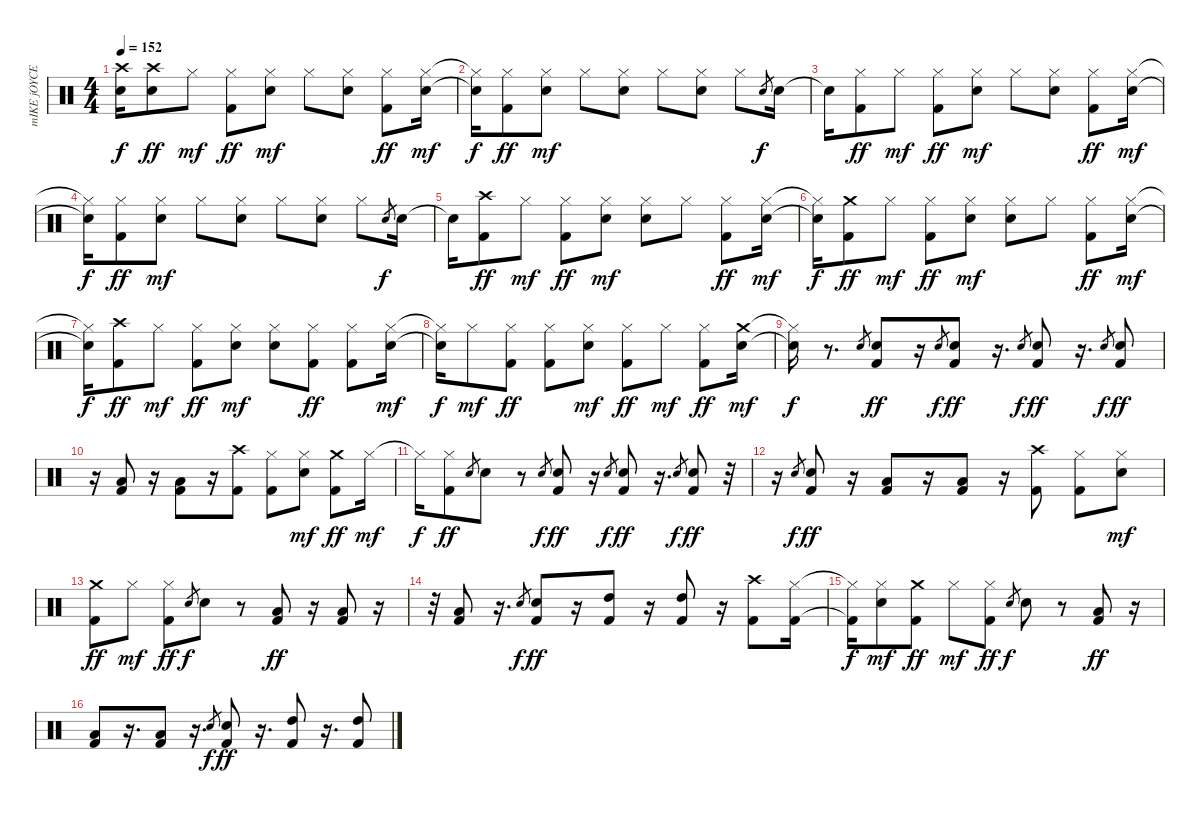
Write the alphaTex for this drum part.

\track ("mIKE jOYCE" "mIKE jOYCE") {instrument percussion}
\staff {score}
\articulation defaults
\ts (4 4)
\tempo 152
\clef neutral
\ks c
("Crash high (hit)"{t} "Electric Snare (hit)"{t}).16{dy f} ("Crash high (hit)" "Electric Snare (hit)").8{dy ff} "Hi-Hat (closed)".8{dy mf} ("Hi-Hat (closed)" "Kick (hit) 2").8{dy ff} ("Hi-Hat (closed)" "Electric Snare (hit)").8{dy mf} "Hi-Hat (closed)".8 ("Hi-Hat (closed)" "Electric Snare (hit)").8 ("Hi-Hat (closed)" "Kick (hit) 2").8{dy ff} ("Hi-Hat (closed)" "Electric Snare (hit)").16{dy mf} |
("Hi-Hat (closed)"{t} "Electric Snare (hit)"{t}).16{dy f} ("Hi-Hat (closed)" "Kick (hit) 2").8{dy ff} ("Hi-Hat (closed)" "Electric Snare (hit)").8{dy mf} "Hi-Hat (closed)".8 ("Hi-Hat (closed)" "Electric Snare (hit)").8 "Hi-Hat (closed)".8 ("Hi-Hat (closed)" "Electric Snare (hit)").8 "Hi-Hat (closed)".8 "Electric Snare (hit)".8{gr dy f} "Electric Snare (hit)".16 |
"Electric Snare (hit)"{t}.16 ("Hi-Hat (closed)" "Kick (hit) 2").8{dy ff} "Hi-Hat (closed)".8{dy mf} ("Hi-Hat (closed)" "Kick (hit) 2").8{dy ff} ("Hi-Hat (closed)" "Electric Snare (hit)").8{dy mf} "Hi-Hat (closed)".8 ("Hi-Hat (closed)" "Electric Snare (hit)").8 ("Hi-Hat (closed)" "Kick (hit) 2").8{dy ff} ("Hi-Hat (closed)" "Electric Snare (hit)").16{dy mf} |
("Hi-Hat (closed)"{t} "Electric Snare (hit)"{t}).16{dy f} ("Hi-Hat (closed)" "Kick (hit) 2").8{dy ff} ("Hi-Hat (closed)" "Electric Snare (hit)").8{dy mf} "Hi-Hat (closed)".8 ("Hi-Hat (closed)" "Electric Snare (hit)").8 "Hi-Hat (closed)".8 ("Hi-Hat (closed)" "Electric Snare (hit)").8 "Hi-Hat (closed)".8 "Electric Snare (hit)".8{gr dy f} "Electric Snare (hit)".16 |
"Electric Snare (hit)"{t}.16 ("Crash high (hit)" "Kick (hit) 2").8{dy ff} "Hi-Hat (closed)".8{dy mf} ("Hi-Hat (closed)" "Kick (hit) 2").8{dy ff} ("Hi-Hat (closed)" "Electric Snare (hit)").8{dy mf} ("Hi-Hat (closed)" "Electric Snare (hit)").8 "Hi-Hat (closed)".8 ("Hi-Hat (closed)" "Kick (hit) 2").8{dy ff} ("Hi-Hat (closed)" "Electric Snare (hit)").16{dy mf} |
("Hi-Hat (closed)"{t} "Electric Snare (hit)"{t}).16{dy f} ("Crash medium (hit)" "Kick (hit) 2").8{dy ff} "Hi-Hat (closed)".8{dy mf} ("Hi-Hat (closed)" "Kick (hit) 2").8{dy ff} ("Hi-Hat (closed)" "Electric Snare (hit)").8{dy mf} ("Hi-Hat (closed)" "Electric Snare (hit)").8 "Hi-Hat (closed)".8 ("Hi-Hat (closed)" "Kick (hit) 2").8{dy ff} ("Hi-Hat (closed)" "Electric Snare (hit)").16{dy mf} |
("Hi-Hat (closed)"{t} "Electric Snare (hit)"{t}).16{dy f} ("Crash high (hit)" "Kick (hit) 2").8{dy ff} "Hi-Hat (closed)".8{dy mf} ("Hi-Hat (closed)" "Kick (hit) 2").8{dy ff} ("Hi-Hat (closed)" "Electric Snare (hit)").8{dy mf} ("Hi-Hat (closed)" "Electric Snare (hit)").8 ("Hi-Hat (closed)" "Kick (hit) 2").8{dy ff} ("Hi-Hat (closed)" "Kick (hit) 2").8 ("Hi-Hat (closed)" "Electric Snare (hit)").16{dy mf} |
("Hi-Hat (closed)"{t} "Electric Snare (hit)"{t}).16{dy f} "Hi-Hat (closed)".8{dy mf} ("Hi-Hat (closed)" "Kick (hit) 2").8{dy ff} ("Hi-Hat (closed)" "Kick (hit) 2").8 ("Hi-Hat (closed)" "Electric Snare (hit)").8{dy mf} ("Hi-Hat (closed)" "Kick (hit) 2").8{dy ff} "Hi-Hat (closed)".8{dy mf} ("Hi-Hat (closed)" "Kick (hit) 2").8{dy ff} ("Crash medium (hit)" "Electric Snare (hit)").16{dy mf} |
("Hi-Hat (closed)"{t} "Electric Snare (hit)"{t}).16{dy f} r.8{d} "Electric Snare (hit)".8{gr} ("Kick (hit) 2" "Electric Snare (hit)").8{dy ff} r.16 "Electric Snare (hit)".8{gr dy f} ("Kick (hit) 2" "Electric Snare (hit)").8{dy ff} r.16{d} "Electric Snare (hit)".8{gr dy f} ("Kick (hit) 2" "Electric Snare (hit)").8{dy ff} r.16{d} "Electric Snare (hit)".8{gr dy f} ("Kick (hit) 2" "Electric Snare (hit)").8{dy ff} |
r.16 ("Kick (hit) 2" "Low Floor Tom (hit)").8 r.16 ("Kick (hit) 2" "Low Floor Tom (hit)").8 r.16 ("Crash high (hit)" "Kick (hit) 2").8 ("Hi-Hat (closed)" "Kick (hit) 2").8 ("Hi-Hat (closed)" "Electric Snare (hit)").8{dy mf} ("Crash medium (hit)" "Kick (hit) 2").8{dy ff} "Hi-Hat (closed)".16{dy mf} |
"Hi-Hat (closed)"{t}.16{dy f} ("Hi-Hat (closed)" "Kick (hit) 2").8{dy ff} "Electric Snare (hit)".8{gr} "Electric Snare (hit)".8 r.8 "Electric Snare (hit)".8{gr dy f} ("Electric Snare (hit)" "Kick (hit) 2").8{dy ff} r.16 "Electric Snare (hit)".8{gr dy f} ("Electric Snare (hit)" "Kick (hit) 2").8{dy ff} r.16{d} "Electric Snare (hit)".8{gr dy f} ("Electric Snare (hit)" "Kick (hit) 2").8{dy ff} r.32 |
r.16 "Electric Snare (hit)".8{gr dy f} ("Kick (hit) 2" "Electric Snare (hit)").8{dy ff} r.16 ("Kick (hit) 2" "Low Floor Tom (hit)").8 r.16 ("Kick (hit) 2" "Low Floor Tom (hit)").8 r.16 ("Crash high (hit)" "Kick (hit) 2").8 ("Hi-Hat (closed)" "Kick (hit) 2").8 ("Hi-Hat (closed)" "Electric Snare (hit)").8{dy mf} |
("Crash medium (hit)" "Kick (hit) 2").8{dy ff} "Hi-Hat (closed)".8{dy mf} ("Hi-Hat (closed)" "Kick (hit) 2").8{dy ff} "Electric Snare (hit)".8{gr dy f} "Electric Snare (hit)".8 r.8 ("Low Floor Tom (hit)" "Kick (hit) 2").8{dy ff} r.16 ("Low Floor Tom (hit)" "Kick (hit) 2").8 r.16 |
r.32 ("Low Floor Tom (hit)" "Kick (hit) 2").8 r.16{d} "Electric Snare (hit)".8{gr dy f} ("Kick (hit) 2" "Electric Snare (hit)").8{dy ff} r.16 ("Kick (hit) 2" "High Tom (hit)").8 r.16 ("Kick (hit) 2" "High Tom (hit)").8 r.16 ("Crash high (hit)" "Kick (hit) 2").8 ("Hi-Hat (closed)" "Kick (hit) 2").16 |
("Hi-Hat (closed)"{t} "Kick (hit) 2"{t}).16{dy f} ("Hi-Hat (closed)" "Electric Snare (hit)").8{dy mf} ("Crash medium (hit)" "Kick (hit) 2").8{dy ff} "Hi-Hat (closed)".8{dy mf} ("Hi-Hat (closed)" "Kick (hit) 2").8{dy ff} "Electric Snare (hit)".8{gr dy f} "Electric Snare (hit)".8 r.8 ("Low Floor Tom (hit)" "Kick (hit) 2").8{dy ff} r.16 |
("Low Floor Tom (hit)" "Kick (hit) 2").8 r.16{d} ("Low Floor Tom (hit)" "Kick (hit) 2").8 r.16{d} "Electric Snare (hit)".8{gr dy f} ("Electric Snare (hit)" "Kick (hit) 2").8{dy ff} r.16{d} ("Kick (hit) 2" "High Tom (hit)").8 r.16{d} ("Kick (hit) 2" "High Tom (hit)").8
